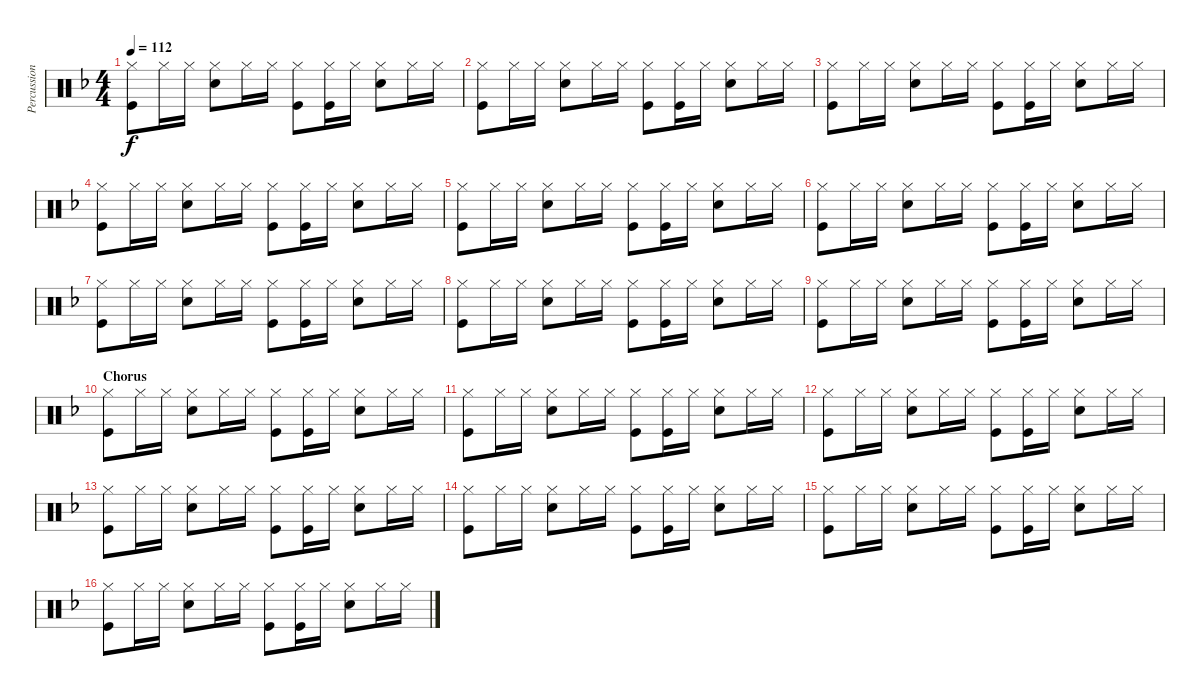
\track ("Percussion" "Percussion") {instrument percussion}
\staff {score}
\articulation defaults
\ts (4 4)
\tempo 112
\clef neutral
\ks f
("Hi-Hat (closed)" "Kick (hit)").8{dy f} "Hi-Hat (closed)".16 "Hi-Hat (closed)".16 ("Hi-Hat (closed)" "Snare (hit) 2").8 "Hi-Hat (closed)".16 "Hi-Hat (closed)".16 ("Hi-Hat (closed)" "Kick (hit)").8 ("Hi-Hat (closed)" "Kick (hit)").16 "Hi-Hat (closed)".16 ("Hi-Hat (closed)" "Snare (hit) 2").8 "Hi-Hat (closed)".16 "Hi-Hat (closed)".16 |
("Hi-Hat (closed)" "Kick (hit)").8 "Hi-Hat (closed)".16 "Hi-Hat (closed)".16 ("Hi-Hat (closed)" "Snare (hit) 2").8 "Hi-Hat (closed)".16 "Hi-Hat (closed)".16 ("Hi-Hat (closed)" "Kick (hit)").8 ("Hi-Hat (closed)" "Kick (hit)").16 "Hi-Hat (closed)".16 ("Hi-Hat (closed)" "Snare (hit) 2").8 "Hi-Hat (closed)".16 "Hi-Hat (closed)".16 |
("Hi-Hat (closed)" "Kick (hit)").8 "Hi-Hat (closed)".16 "Hi-Hat (closed)".16 ("Hi-Hat (closed)" "Snare (hit) 2").8 "Hi-Hat (closed)".16 "Hi-Hat (closed)".16 ("Hi-Hat (closed)" "Kick (hit)").8 ("Hi-Hat (closed)" "Kick (hit)").16 "Hi-Hat (closed)".16 ("Hi-Hat (closed)" "Snare (hit) 2").8 "Hi-Hat (closed)".16 "Hi-Hat (closed)".16 |
("Hi-Hat (closed)" "Kick (hit)").8 "Hi-Hat (closed)".16 "Hi-Hat (closed)".16 ("Hi-Hat (closed)" "Snare (hit) 2").8 "Hi-Hat (closed)".16 "Hi-Hat (closed)".16 ("Hi-Hat (closed)" "Kick (hit)").8 ("Hi-Hat (closed)" "Kick (hit)").16 "Hi-Hat (closed)".16 ("Hi-Hat (closed)" "Snare (hit) 2").8 "Hi-Hat (closed)".16 "Hi-Hat (closed)".16 |
("Hi-Hat (closed)" "Kick (hit)").8 "Hi-Hat (closed)".16 "Hi-Hat (closed)".16 ("Hi-Hat (closed)" "Snare (hit) 2").8 "Hi-Hat (closed)".16 "Hi-Hat (closed)".16 ("Hi-Hat (closed)" "Kick (hit)").8 ("Hi-Hat (closed)" "Kick (hit)").16 "Hi-Hat (closed)".16 ("Hi-Hat (closed)" "Snare (hit) 2").8 "Hi-Hat (closed)".16 "Hi-Hat (closed)".16 |
("Hi-Hat (closed)" "Kick (hit)").8 "Hi-Hat (closed)".16 "Hi-Hat (closed)".16 ("Hi-Hat (closed)" "Snare (hit) 2").8 "Hi-Hat (closed)".16 "Hi-Hat (closed)".16 ("Hi-Hat (closed)" "Kick (hit)").8 ("Hi-Hat (closed)" "Kick (hit)").16 "Hi-Hat (closed)".16 ("Hi-Hat (closed)" "Snare (hit) 2").8 "Hi-Hat (closed)".16 "Hi-Hat (closed)".16 |
("Hi-Hat (closed)" "Kick (hit)").8 "Hi-Hat (closed)".16 "Hi-Hat (closed)".16 ("Hi-Hat (closed)" "Snare (hit) 2").8 "Hi-Hat (closed)".16 "Hi-Hat (closed)".16 ("Hi-Hat (closed)" "Kick (hit)").8 ("Hi-Hat (closed)" "Kick (hit)").16 "Hi-Hat (closed)".16 ("Hi-Hat (closed)" "Snare (hit) 2").8 "Hi-Hat (closed)".16 "Hi-Hat (closed)".16 |
("Hi-Hat (closed)" "Kick (hit)").8 "Hi-Hat (closed)".16 "Hi-Hat (closed)".16 ("Hi-Hat (closed)" "Snare (hit) 2").8 "Hi-Hat (closed)".16 "Hi-Hat (closed)".16 ("Hi-Hat (closed)" "Kick (hit)").8 ("Hi-Hat (closed)" "Kick (hit)").16 "Hi-Hat (closed)".16 ("Hi-Hat (closed)" "Snare (hit) 2").8 "Hi-Hat (closed)".16 "Hi-Hat (closed)".16 |
("Hi-Hat (closed)" "Kick (hit)").8 "Hi-Hat (closed)".16 "Hi-Hat (closed)".16 ("Hi-Hat (closed)" "Snare (hit) 2").8 "Hi-Hat (closed)".16 "Hi-Hat (closed)".16 ("Hi-Hat (closed)" "Kick (hit)").8 ("Hi-Hat (closed)" "Kick (hit)").16 "Hi-Hat (closed)".16 ("Hi-Hat (closed)" "Snare (hit) 2").8 "Hi-Hat (closed)".16 "Hi-Hat (closed)".16 |
\section ("" "Chorus")
("Hi-Hat (closed)" "Kick (hit)").8 "Hi-Hat (closed)".16 "Hi-Hat (closed)".16 ("Hi-Hat (closed)" "Snare (hit) 2").8 "Hi-Hat (closed)".16 "Hi-Hat (closed)".16 ("Hi-Hat (closed)" "Kick (hit)").8 ("Hi-Hat (closed)" "Kick (hit)").16 "Hi-Hat (closed)".16 ("Hi-Hat (closed)" "Snare (hit) 2").8 "Hi-Hat (closed)".16 "Hi-Hat (closed)".16 |
("Hi-Hat (closed)" "Kick (hit)").8 "Hi-Hat (closed)".16 "Hi-Hat (closed)".16 ("Hi-Hat (closed)" "Snare (hit) 2").8 "Hi-Hat (closed)".16 "Hi-Hat (closed)".16 ("Hi-Hat (closed)" "Kick (hit)").8 ("Hi-Hat (closed)" "Kick (hit)").16 "Hi-Hat (closed)".16 ("Hi-Hat (closed)" "Snare (hit) 2").8 "Hi-Hat (closed)".16 "Hi-Hat (closed)".16 |
("Hi-Hat (closed)" "Kick (hit)").8 "Hi-Hat (closed)".16 "Hi-Hat (closed)".16 ("Hi-Hat (closed)" "Snare (hit) 2").8 "Hi-Hat (closed)".16 "Hi-Hat (closed)".16 ("Hi-Hat (closed)" "Kick (hit)").8 ("Hi-Hat (closed)" "Kick (hit)").16 "Hi-Hat (closed)".16 ("Hi-Hat (closed)" "Snare (hit) 2").8 "Hi-Hat (closed)".16 "Hi-Hat (closed)".16 |
("Hi-Hat (closed)" "Kick (hit)").8 "Hi-Hat (closed)".16 "Hi-Hat (closed)".16 ("Hi-Hat (closed)" "Snare (hit) 2").8 "Hi-Hat (closed)".16 "Hi-Hat (closed)".16 ("Hi-Hat (closed)" "Kick (hit)").8 ("Hi-Hat (closed)" "Kick (hit)").16 "Hi-Hat (closed)".16 ("Hi-Hat (closed)" "Snare (hit) 2").8 "Hi-Hat (closed)".16 "Hi-Hat (closed)".16 |
("Hi-Hat (closed)" "Kick (hit)").8 "Hi-Hat (closed)".16 "Hi-Hat (closed)".16 ("Hi-Hat (closed)" "Snare (hit) 2").8 "Hi-Hat (closed)".16 "Hi-Hat (closed)".16 ("Hi-Hat (closed)" "Kick (hit)").8 ("Hi-Hat (closed)" "Kick (hit)").16 "Hi-Hat (closed)".16 ("Hi-Hat (closed)" "Snare (hit) 2").8 "Hi-Hat (closed)".16 "Hi-Hat (closed)".16 |
("Hi-Hat (closed)" "Kick (hit)").8 "Hi-Hat (closed)".16 "Hi-Hat (closed)".16 ("Hi-Hat (closed)" "Snare (hit) 2").8 "Hi-Hat (closed)".16 "Hi-Hat (closed)".16 ("Hi-Hat (closed)" "Kick (hit)").8 ("Hi-Hat (closed)" "Kick (hit)").16 "Hi-Hat (closed)".16 ("Hi-Hat (closed)" "Snare (hit) 2").8 "Hi-Hat (closed)".16 "Hi-Hat (closed)".16 |
("Hi-Hat (closed)" "Kick (hit)").8 "Hi-Hat (closed)".16 "Hi-Hat (closed)".16 ("Hi-Hat (closed)" "Snare (hit) 2").8 "Hi-Hat (closed)".16 "Hi-Hat (closed)".16 ("Hi-Hat (closed)" "Kick (hit)").8 ("Hi-Hat (closed)" "Kick (hit)").16 "Hi-Hat (closed)".16 ("Hi-Hat (closed)" "Snare (hit) 2").8 "Hi-Hat (closed)".16 "Hi-Hat (closed)".16
